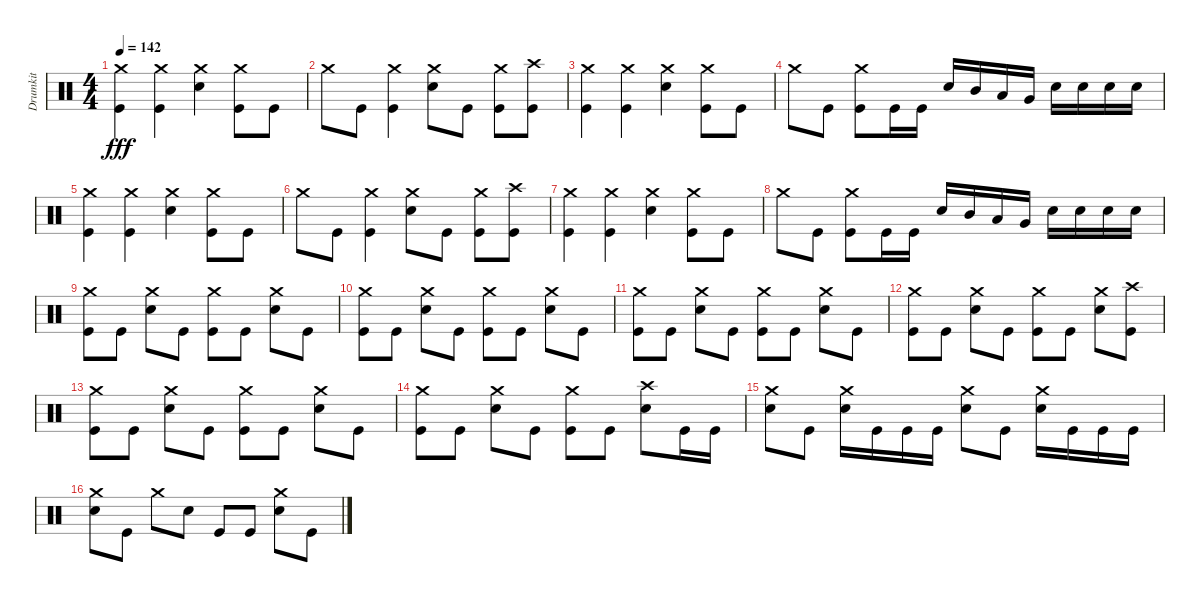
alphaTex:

\track ("Drumkit" "Drumkit") {instrument percussion}
\staff {score}
\articulation defaults
\ts (4 4)
\tempo 142
\clef neutral
\ks c
("Kick (hit)" "Crash medium (hit)").4{dy fff} ("Kick (hit)" "Crash medium (hit)").4 ("Snare (hit) 2" "Crash medium (hit)").4 ("Crash medium (hit)" "Kick (hit)").8 "Kick (hit)".8 |
"Crash medium (hit)".8 "Kick (hit)".8 ("Kick (hit)" "Crash medium (hit)").4 ("Snare (hit) 2" "Crash medium (hit)").8 "Kick (hit)".8 ("Kick (hit)" "Crash medium (hit)").8 ("Kick (hit)" "Crash high (hit)").8 |
("Kick (hit)" "Crash medium (hit)").4 ("Kick (hit)" "Crash medium (hit)").4 ("Snare (hit) 2" "Crash medium (hit)").4 ("Crash medium (hit)" "Kick (hit)").8 "Kick (hit)".8 |
"Crash medium (hit)".8 "Kick (hit)".8 ("Crash medium (hit)" "Kick (hit)").8 "Kick (hit)".16 "Kick (hit)".16 "Snare (hit) 2".16 "Mid Tom (hit)".16 "Low Tom (hit)".16 "Very Low Tom (hit)".16 "Snare (hit) 2".16 "Snare (hit) 2".16 "Snare (hit) 2".16 "Snare (hit) 2".16 |
("Kick (hit)" "Crash medium (hit)").4 ("Kick (hit)" "Crash medium (hit)").4 ("Snare (hit) 2" "Crash medium (hit)").4 ("Crash medium (hit)" "Kick (hit)").8 "Kick (hit)".8 |
"Crash medium (hit)".8 "Kick (hit)".8 ("Kick (hit)" "Crash medium (hit)").4 ("Snare (hit) 2" "Crash medium (hit)").8 "Kick (hit)".8 ("Kick (hit)" "Crash medium (hit)").8 ("Kick (hit)" "Crash high (hit)").8 |
("Kick (hit)" "Crash medium (hit)").4 ("Kick (hit)" "Crash medium (hit)").4 ("Snare (hit) 2" "Crash medium (hit)").4 ("Crash medium (hit)" "Kick (hit)").8 "Kick (hit)".8 |
"Crash medium (hit)".8 "Kick (hit)".8 ("Crash medium (hit)" "Kick (hit)").8 "Kick (hit)".16 "Kick (hit)".16 "Snare (hit) 2".16 "Mid Tom (hit)".16 "Low Tom (hit)".16 "Very Low Tom (hit)".16 "Snare (hit) 2".16 "Snare (hit) 2".16 "Snare (hit) 2".16 "Snare (hit) 2".16 |
("Kick (hit)" "Crash medium (hit)").8 "Kick (hit)".8 ("Snare (hit) 2" "Crash medium (hit)").8 "Kick (hit)".8 ("Kick (hit)" "Crash medium (hit)").8 "Kick (hit)".8 ("Snare (hit) 2" "Crash medium (hit)").8 "Kick (hit)".8 |
("Kick (hit)" "Crash medium (hit)").8 "Kick (hit)".8 ("Snare (hit) 2" "Crash medium (hit)").8 "Kick (hit)".8 ("Kick (hit)" "Crash medium (hit)").8 "Kick (hit)".8 ("Snare (hit) 2" "Crash medium (hit)").8 "Kick (hit)".8 |
("Kick (hit)" "Crash medium (hit)").8 "Kick (hit)".8 ("Snare (hit) 2" "Crash medium (hit)").8 "Kick (hit)".8 ("Kick (hit)" "Crash medium (hit)").8 "Kick (hit)".8 ("Snare (hit) 2" "Crash medium (hit)").8 "Kick (hit)".8 |
("Kick (hit)" "Crash medium (hit)").8 "Kick (hit)".8 ("Snare (hit) 2" "Crash medium (hit)").8 "Kick (hit)".8 ("Kick (hit)" "Crash medium (hit)").8 "Kick (hit)".8 ("Snare (hit) 2" "Crash medium (hit)").8 ("Kick (hit)" "Crash high (hit)").8 |
("Kick (hit)" "Crash medium (hit)").8 "Kick (hit)".8 ("Snare (hit) 2" "Crash medium (hit)").8 "Kick (hit)".8 ("Kick (hit)" "Crash medium (hit)").8 "Kick (hit)".8 ("Snare (hit) 2" "Crash medium (hit)").8 "Kick (hit)".8 |
("Kick (hit)" "Crash medium (hit)").8 "Kick (hit)".8 ("Snare (hit) 2" "Crash medium (hit)").8 "Kick (hit)".8 ("Kick (hit)" "Crash medium (hit)").8 "Kick (hit)".8 ("Crash high (hit)" "Snare (hit) 2").8 "Kick (hit)".16 "Kick (hit)".16 |
("Snare (hit) 2" "Crash medium (hit)").8 "Kick (hit)".8 ("Snare (hit) 2" "Crash medium (hit)").16 "Kick (hit)".16 "Kick (hit)".16 "Kick (hit)".16 ("Snare (hit) 2" "Crash medium (hit)").8 "Kick (hit)".8 ("Snare (hit) 2" "Crash medium (hit)").16 "Kick (hit)".16 "Kick (hit)".16 "Kick (hit)".16 |
("Snare (hit) 2" "Crash medium (hit)").8 "Kick (hit)".8 "Crash medium (hit)".8 "Snare (hit) 2".8 "Kick (hit)".8 "Kick (hit)".8 ("Snare (hit) 2" "Crash medium (hit)").8 "Kick (hit)".8
